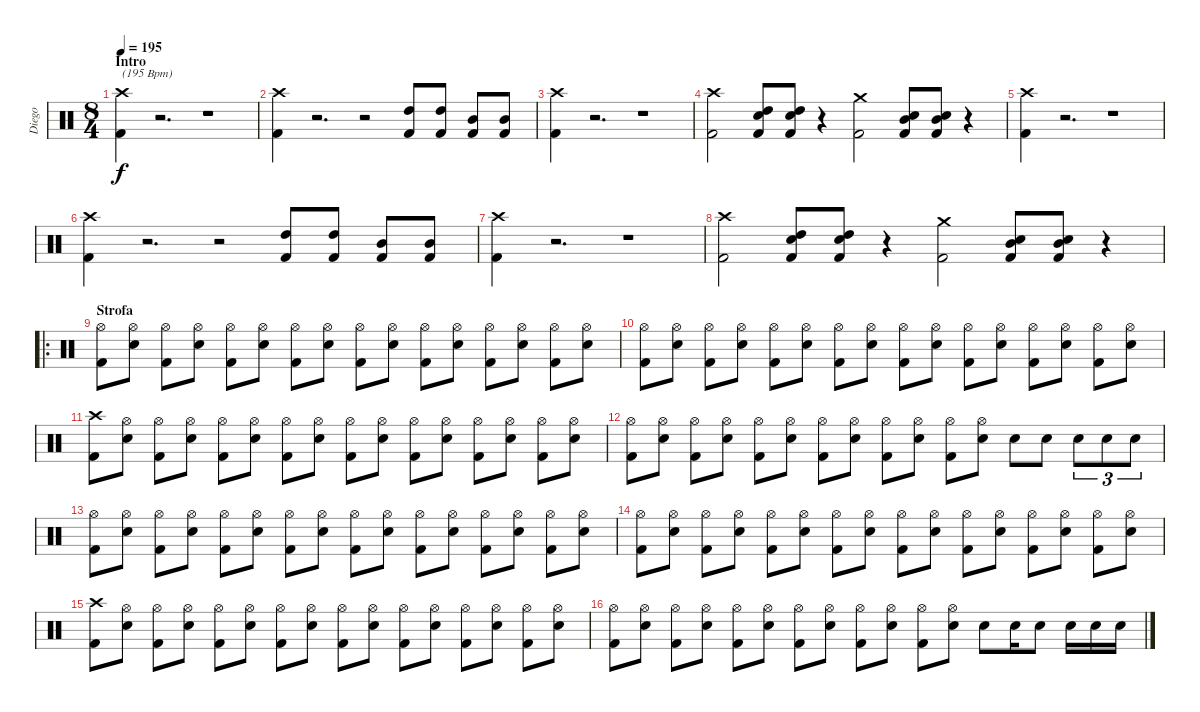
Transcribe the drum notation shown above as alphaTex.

\track ("Diego" "Diego") {instrument percussion}
\staff {score}
\articulation defaults
\ts (8 4)
\section ("" "Intro")
\tempo 195
\clef neutral
\ks c
("Crash high (hit)" "Kick (hit) 2").4{txt "(195 Bpm)" dy f volume 16} r.2{d volume 0} r.1 |
("Crash high (hit)" "Kick (hit) 2").4{volume 16} r.2{d volume 0} r.2 ("High Tom (hit)" "Kick (hit) 2").8{volume 16} ("High Tom (hit)" "Kick (hit) 2").8 ("Mid Tom (hit)" "Kick (hit) 2").8 ("Mid Tom (hit)" "Kick (hit) 2").8 |
("Crash high (hit)" "Kick (hit) 2").4{volume 16} r.2{d volume 0} r.1 |
("Crash high (hit)" "Kick (hit) 2").2{volume 16} ("High Tom (hit)" "Electric Snare (hit)" "Kick (hit) 2").8 ("High Tom (hit)" "Electric Snare (hit)" "Kick (hit) 2").8 r.4 ("Crash medium (hit)" "Kick (hit) 2").2 ("Mid Tom (hit)" "Electric Snare (hit)" "Kick (hit) 2").8 ("Mid Tom (hit)" "Electric Snare (hit)" "Kick (hit) 2").8 r.4 |
("Crash high (hit)" "Kick (hit) 2").4{volume 16} r.2{d volume 0} r.1 |
("Crash high (hit)" "Kick (hit) 2").4{volume 16} r.2{d volume 0} r.2 ("High Tom (hit)" "Kick (hit) 2").8{volume 16} ("High Tom (hit)" "Kick (hit) 2").8 ("Mid Tom (hit)" "Kick (hit) 2").8 ("Mid Tom (hit)" "Kick (hit) 2").8 |
("Crash high (hit)" "Kick (hit) 2").4{volume 16} r.2{d volume 0} r.1 |
("Crash high (hit)" "Kick (hit) 2").2{volume 16} ("High Tom (hit)" "Electric Snare (hit)" "Kick (hit) 2").8 ("High Tom (hit)" "Electric Snare (hit)" "Kick (hit) 2").8 r.4 ("Crash medium (hit)" "Kick (hit) 2").2 ("Mid Tom (hit)" "Electric Snare (hit)" "Kick (hit) 2").8 ("Mid Tom (hit)" "Electric Snare (hit)" "Kick (hit) 2").8 r.4 |
\ro
\section ("" "Strofa")
("Hi-Hat (open)" "Kick (hit) 2").8 ("Hi-Hat (open)" "Electric Snare (hit)").8 ("Hi-Hat (open)" "Kick (hit) 2").8 ("Hi-Hat (open)" "Electric Snare (hit)").8 ("Hi-Hat (open)" "Kick (hit) 2").8 ("Hi-Hat (open)" "Electric Snare (hit)").8 ("Hi-Hat (open)" "Kick (hit) 2").8 ("Hi-Hat (open)" "Electric Snare (hit)").8 ("Hi-Hat (open)" "Kick (hit) 2").8 ("Hi-Hat (open)" "Electric Snare (hit)").8 ("Hi-Hat (open)" "Kick (hit) 2").8 ("Hi-Hat (open)" "Electric Snare (hit)").8 ("Hi-Hat (open)" "Kick (hit) 2").8 ("Hi-Hat (open)" "Electric Snare (hit)").8 ("Hi-Hat (open)" "Kick (hit) 2").8 ("Hi-Hat (open)" "Electric Snare (hit)").8 |
("Hi-Hat (open)" "Kick (hit) 2").8 ("Hi-Hat (open)" "Electric Snare (hit)").8 ("Hi-Hat (open)" "Kick (hit) 2").8 ("Hi-Hat (open)" "Electric Snare (hit)").8 ("Hi-Hat (open)" "Kick (hit) 2").8 ("Hi-Hat (open)" "Electric Snare (hit)").8 ("Hi-Hat (open)" "Kick (hit) 2").8 ("Hi-Hat (open)" "Electric Snare (hit)").8 ("Hi-Hat (open)" "Kick (hit) 2").8 ("Hi-Hat (open)" "Electric Snare (hit)").8 ("Hi-Hat (open)" "Kick (hit) 2").8 ("Hi-Hat (open)" "Electric Snare (hit)").8 ("Hi-Hat (open)" "Kick (hit) 2").8 ("Hi-Hat (open)" "Electric Snare (hit)").8 ("Hi-Hat (open)" "Kick (hit) 2").8 ("Hi-Hat (open)" "Electric Snare (hit)").8 |
("Crash high (hit)" "Kick (hit) 2").8 ("Hi-Hat (open)" "Electric Snare (hit)").8 ("Hi-Hat (open)" "Kick (hit) 2").8 ("Hi-Hat (open)" "Electric Snare (hit)").8 ("Hi-Hat (open)" "Kick (hit) 2").8 ("Hi-Hat (open)" "Electric Snare (hit)").8 ("Hi-Hat (open)" "Kick (hit) 2").8 ("Hi-Hat (open)" "Electric Snare (hit)").8 ("Hi-Hat (open)" "Kick (hit) 2").8 ("Hi-Hat (open)" "Electric Snare (hit)").8 ("Hi-Hat (open)" "Kick (hit) 2").8 ("Hi-Hat (open)" "Electric Snare (hit)").8 ("Hi-Hat (open)" "Kick (hit) 2").8 ("Hi-Hat (open)" "Electric Snare (hit)").8 ("Hi-Hat (open)" "Kick (hit) 2").8 ("Hi-Hat (open)" "Electric Snare (hit)").8 |
("Hi-Hat (open)" "Kick (hit) 2").8 ("Hi-Hat (open)" "Electric Snare (hit)").8 ("Hi-Hat (open)" "Kick (hit) 2").8 ("Hi-Hat (open)" "Electric Snare (hit)").8 ("Hi-Hat (open)" "Kick (hit) 2").8 ("Hi-Hat (open)" "Electric Snare (hit)").8 ("Hi-Hat (open)" "Kick (hit) 2").8 ("Hi-Hat (open)" "Electric Snare (hit)").8 ("Hi-Hat (open)" "Kick (hit) 2").8 ("Hi-Hat (open)" "Electric Snare (hit)").8 ("Hi-Hat (open)" "Kick (hit) 2").8 ("Hi-Hat (open)" "Electric Snare (hit)").8 "Electric Snare (hit)".8 "Electric Snare (hit)".8 "Electric Snare (hit)".8{tu (3 2)} "Electric Snare (hit)".8{tu (3 2)} "Electric Snare (hit)".8{tu (3 2)} |
("Hi-Hat (open)" "Kick (hit) 2").8 ("Hi-Hat (open)" "Electric Snare (hit)").8 ("Hi-Hat (open)" "Kick (hit) 2").8 ("Hi-Hat (open)" "Electric Snare (hit)").8 ("Hi-Hat (open)" "Kick (hit) 2").8 ("Hi-Hat (open)" "Electric Snare (hit)").8 ("Hi-Hat (open)" "Kick (hit) 2").8 ("Hi-Hat (open)" "Electric Snare (hit)").8 ("Hi-Hat (open)" "Kick (hit) 2").8 ("Hi-Hat (open)" "Electric Snare (hit)").8 ("Hi-Hat (open)" "Kick (hit) 2").8 ("Hi-Hat (open)" "Electric Snare (hit)").8 ("Hi-Hat (open)" "Kick (hit) 2").8 ("Hi-Hat (open)" "Electric Snare (hit)").8 ("Hi-Hat (open)" "Kick (hit) 2").8 ("Hi-Hat (open)" "Electric Snare (hit)").8 |
("Hi-Hat (open)" "Kick (hit) 2").8 ("Hi-Hat (open)" "Electric Snare (hit)").8 ("Hi-Hat (open)" "Kick (hit) 2").8 ("Hi-Hat (open)" "Electric Snare (hit)").8 ("Hi-Hat (open)" "Kick (hit) 2").8 ("Hi-Hat (open)" "Electric Snare (hit)").8 ("Hi-Hat (open)" "Kick (hit) 2").8 ("Hi-Hat (open)" "Electric Snare (hit)").8 ("Hi-Hat (open)" "Kick (hit) 2").8 ("Hi-Hat (open)" "Electric Snare (hit)").8 ("Hi-Hat (open)" "Kick (hit) 2").8 ("Hi-Hat (open)" "Electric Snare (hit)").8 ("Hi-Hat (open)" "Kick (hit) 2").8 ("Hi-Hat (open)" "Electric Snare (hit)").8 ("Hi-Hat (open)" "Kick (hit) 2").8 ("Hi-Hat (open)" "Electric Snare (hit)").8 |
("Crash high (hit)" "Kick (hit) 2").8 ("Hi-Hat (open)" "Electric Snare (hit)").8 ("Hi-Hat (open)" "Kick (hit) 2").8 ("Hi-Hat (open)" "Electric Snare (hit)").8 ("Hi-Hat (open)" "Kick (hit) 2").8 ("Hi-Hat (open)" "Electric Snare (hit)").8 ("Hi-Hat (open)" "Kick (hit) 2").8 ("Hi-Hat (open)" "Electric Snare (hit)").8 ("Hi-Hat (open)" "Kick (hit) 2").8 ("Hi-Hat (open)" "Electric Snare (hit)").8 ("Hi-Hat (open)" "Kick (hit) 2").8 ("Hi-Hat (open)" "Electric Snare (hit)").8 ("Hi-Hat (open)" "Kick (hit) 2").8 ("Hi-Hat (open)" "Electric Snare (hit)").8 ("Hi-Hat (open)" "Kick (hit) 2").8 ("Hi-Hat (open)" "Electric Snare (hit)").8 |
("Hi-Hat (open)" "Kick (hit) 2").8 ("Hi-Hat (open)" "Electric Snare (hit)").8 ("Hi-Hat (open)" "Kick (hit) 2").8 ("Hi-Hat (open)" "Electric Snare (hit)").8 ("Hi-Hat (open)" "Kick (hit) 2").8 ("Hi-Hat (open)" "Electric Snare (hit)").8 ("Hi-Hat (open)" "Kick (hit) 2").8 ("Hi-Hat (open)" "Electric Snare (hit)").8 ("Hi-Hat (open)" "Kick (hit) 2").8 ("Hi-Hat (open)" "Electric Snare (hit)").8 ("Hi-Hat (open)" "Kick (hit) 2").8 ("Hi-Hat (open)" "Electric Snare (hit)").8 "Electric Snare (hit)".8 "Electric Snare (hit)".16 "Electric Snare (hit)".8 "Electric Snare (hit)".16 "Electric Snare (hit)".16 "Electric Snare (hit)".16
